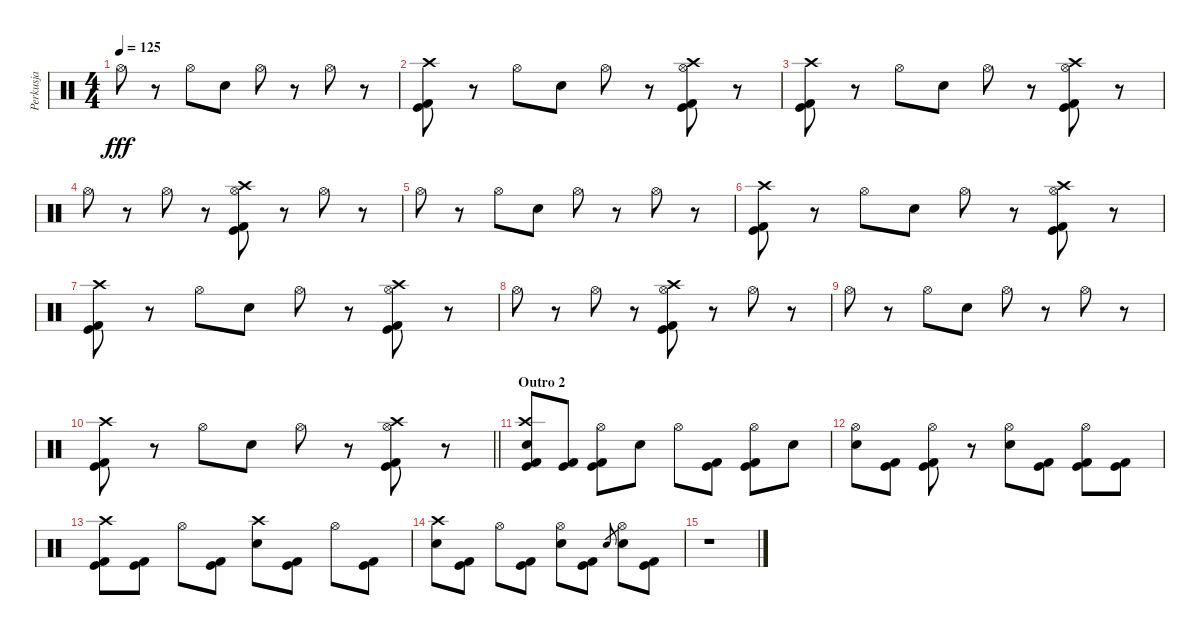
\track ("Perkusja" "Perkusja") {instrument percussion}
\staff {score}
\articulation defaults
\ts (4 4)
\tempo 125
\clef neutral
\ks c "Hi-Hat (open)".8{dy fff}
r.8 "Hi-Hat (open)".8 "Electric Snare (hit)".8 "Hi-Hat (open)".8 r.8 "Hi-Hat (open)".8 r.8 |
("Crash high (hit)" "Kick (hit)" "Kick (hit) 2").8 r.8 "Hi-Hat (open)".8 "Electric Snare (hit)".8 "Hi-Hat (open)".8 r.8 ("Hi-Hat (open)" "Crash high (hit)" "Kick (hit)" "Kick (hit) 2").8 r.8 |
("Crash high (hit)" "Kick (hit)" "Kick (hit) 2").8 r.8 "Hi-Hat (open)".8 "Electric Snare (hit)".8 "Hi-Hat (open)".8 r.8 ("Hi-Hat (open)" "Crash high (hit)" "Kick (hit)" "Kick (hit) 2").8 r.8 |
"Hi-Hat (open)".8 r.8 "Hi-Hat (open)".8 r.8 ("Hi-Hat (open)" "Crash high (hit)" "Kick (hit)" "Kick (hit) 2").8 r.8 "Hi-Hat (open)".8 r.8 |
"Hi-Hat (open)".8 r.8 "Hi-Hat (open)".8 "Electric Snare (hit)".8 "Hi-Hat (open)".8 r.8 "Hi-Hat (open)".8 r.8 |
("Crash high (hit)" "Kick (hit)" "Kick (hit) 2").8 r.8 "Hi-Hat (open)".8 "Electric Snare (hit)".8 "Hi-Hat (open)".8 r.8 ("Hi-Hat (open)" "Crash high (hit)" "Kick (hit)" "Kick (hit) 2").8 r.8 |
("Crash high (hit)" "Kick (hit)" "Kick (hit) 2").8 r.8 "Hi-Hat (open)".8 "Electric Snare (hit)".8 "Hi-Hat (open)".8 r.8 ("Hi-Hat (open)" "Crash high (hit)" "Kick (hit)" "Kick (hit) 2").8 r.8 |
"Hi-Hat (open)".8 r.8 "Hi-Hat (open)".8 r.8 ("Hi-Hat (open)" "Crash high (hit)" "Kick (hit)" "Kick (hit) 2").8 r.8 "Hi-Hat (open)".8 r.8 |
"Hi-Hat (open)".8 r.8 "Hi-Hat (open)".8 "Electric Snare (hit)".8 "Hi-Hat (open)".8 r.8 "Hi-Hat (open)".8 r.8 |
\barLineRight lightlight
("Crash high (hit)" "Kick (hit)" "Kick (hit) 2").8 r.8 "Hi-Hat (open)".8 "Electric Snare (hit)".8 "Hi-Hat (open)".8 r.8 ("Hi-Hat (open)" "Crash high (hit)" "Kick (hit)" "Kick (hit) 2").8 r.8 |
\section ("" "Outro 2")
("Crash high (hit)" "Electric Snare (hit)" "Kick (hit)" "Kick (hit) 2").8 ("Kick (hit)" "Kick (hit) 2").8 ("Hi-Hat (open)" "Kick (hit)" "Kick (hit) 2").8 "Electric Snare (hit)".8 "Hi-Hat (open)".8 ("Kick (hit)" "Kick (hit) 2").8 ("Hi-Hat (open)" "Kick (hit)" "Kick (hit) 2").8 "Electric Snare (hit)".8 |
("Hi-Hat (open)" "Electric Snare (hit)").8 ("Kick (hit)" "Kick (hit) 2").8 ("Hi-Hat (open)" "Kick (hit)" "Kick (hit) 2").8 r.8 ("Hi-Hat (open)" "Electric Snare (hit)").8 ("Kick (hit)" "Kick (hit) 2").8 ("Hi-Hat (open)" "Kick (hit)" "Kick (hit) 2").8 ("Kick (hit)" "Kick (hit) 2").8 |
("Crash high (hit)" "Kick (hit)" "Kick (hit) 2").8 ("Kick (hit)" "Kick (hit) 2").8 "Hi-Hat (open)".8 ("Kick (hit)" "Kick (hit) 2").8 ("Crash high (hit)" "Electric Snare (hit)").8 ("Kick (hit)" "Kick (hit) 2").8 "Hi-Hat (open)".8 ("Kick (hit)" "Kick (hit) 2").8 |
("Crash high (hit)" "Electric Snare (hit)").8 ("Kick (hit)" "Kick (hit) 2").8 "Hi-Hat (open)".8 ("Kick (hit)" "Kick (hit) 2").8 ("Hi-Hat (open)" "Electric Snare (hit)").8 ("Kick (hit)" "Kick (hit) 2").8 "Electric Snare (hit)".8{gr} ("Hi-Hat (open)" "Electric Snare (hit)").8 ("Kick (hit)" "Kick (hit) 2").8 |
r.1
